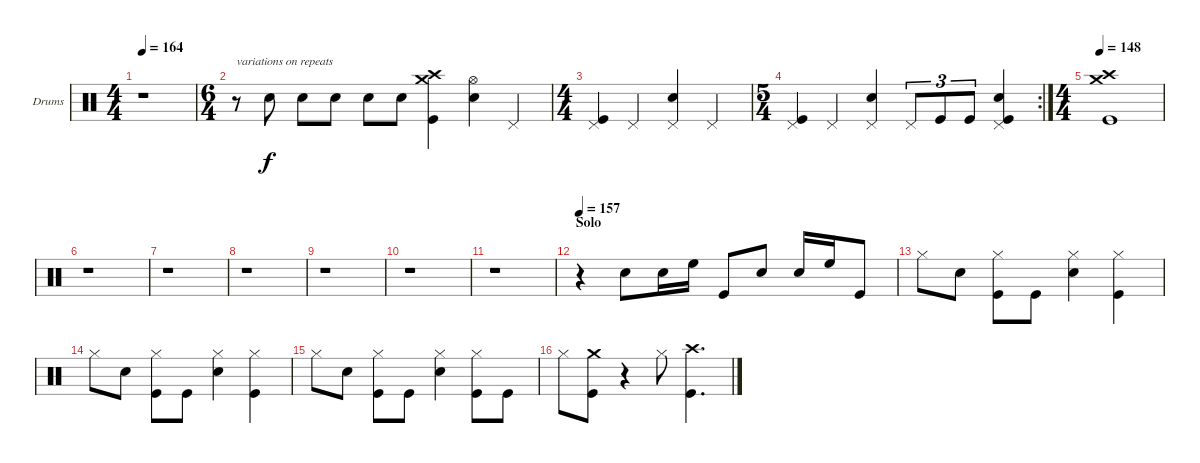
\defaultSystemsLayout 4
\bracketExtendMode groupsimilarinstruments
\firstSystemTrackNameOrientation horizontal
\otherSystemsTrackNameOrientation horizontal
\track ("Drumkit" "Drums") {instrument percussion}
\staff {score}
\articulation defaults
\ts (4 4)
\tempo 164
\clef neutral
\ks c
r.1{dy f} |
\ts (6 4)
r.8{txt "variations on repeats"} "Snare (hit) 2".8 "Snare (hit) 2".8 "Snare (hit) 2".8 "Snare (hit) 2".8 "Snare (hit) 2".8 ("Crash high (hit)" "Kick (hit)" "Crash medium (hit)").4 ("Snare (hit) 2" "Hi-Hat (open)").4 "Pedal Hi-Hat (hit)".4 |
\ts (4 4)
("Pedal Hi-Hat (hit)" "Kick (hit)").4 "Pedal Hi-Hat (hit)".4 ("Snare (hit) 2" "Pedal Hi-Hat (hit)").4 "Pedal Hi-Hat (hit)".4 |
\rc 2
\ts (5 4)
("Kick (hit)" "Pedal Hi-Hat (hit)").4 "Pedal Hi-Hat (hit)".4 ("Snare (hit) 2" "Pedal Hi-Hat (hit)").4 "Pedal Hi-Hat (hit)".8{tu (3 2)} "Kick (hit)".8{tu (3 2)} "Kick (hit)".8{tu (3 2)} ("Snare (hit) 2" "Pedal Hi-Hat (hit)" "Kick (hit)").4 |
\ts (4 4)
\tempo 148
("Kick (hit)" "Crash medium (hit)" "Crash high (hit)").1 |
r.1 |
r.1 |
r.1 |
r.1 |
r.1 |
r.1 |
\section ("" "Solo")
\tempo 157
r.4 "Snare (hit) 2".8 "Snare (hit) 2".16 "High Floor Tom (hit)".16 "Kick (hit)".8 "Snare (hit) 2".8 "Snare (hit) 2".16 "High Floor Tom (hit)".16 "Kick (hit)".8 |
"Hi-Hat (closed)".8 "Snare (hit) 2".8 ("Hi-Hat (closed)" "Kick (hit)").8 "Kick (hit)".8 ("Hi-Hat (closed)" "Snare (hit) 2").4 ("Hi-Hat (closed)" "Kick (hit)").4 |
"Hi-Hat (closed)".8 "Snare (hit) 2".8 ("Hi-Hat (closed)" "Kick (hit)").8 "Kick (hit)".8 ("Hi-Hat (closed)" "Snare (hit) 2").4 ("Hi-Hat (closed)" "Kick (hit)").4 |
"Hi-Hat (closed)".8 "Snare (hit) 2".8 ("Kick (hit)" "Hi-Hat (closed)").8 "Kick (hit)".8 ("Snare (hit) 2" "Hi-Hat (closed)").4 ("Kick (hit)" "Hi-Hat (closed)").8 "Kick (hit)".8 |
"Hi-Hat (closed)".8 ("Crash medium (hit)" "Kick (hit)").8 r.4 "Hi-Hat (closed)".8 ("Crash high (hit)" "Kick (hit)").4{d}
